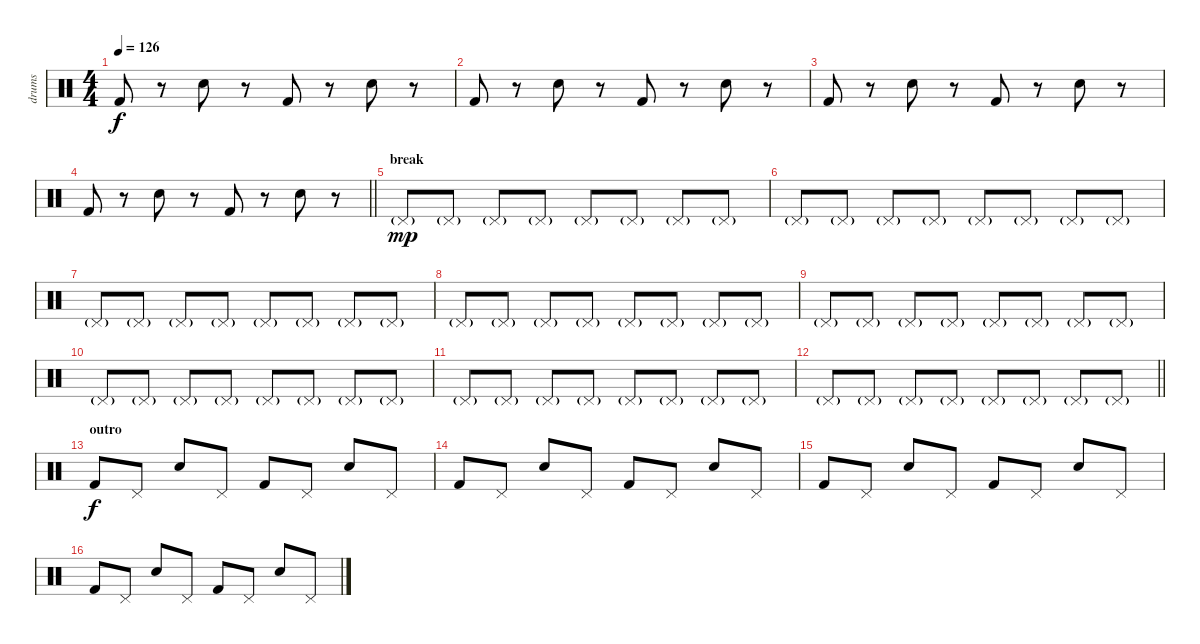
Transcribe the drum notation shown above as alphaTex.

\track ("drums" "drums") {instrument percussion}
\staff {score}
\articulation defaults
\ts (4 4)
\tempo 126
\clef neutral
\ks c "Kick (hit) 2".8{dy f}
r.8 "Hand Clap (hit)".8 r.8 "Kick (hit) 2".8 r.8 "Hand Clap (hit)".8 r.8 |
"Kick (hit) 2".8 r.8 "Hand Clap (hit)".8 r.8 "Kick (hit) 2".8 r.8 "Hand Clap (hit)".8 r.8 |
"Kick (hit) 2".8 r.8 "Hand Clap (hit)".8 r.8 "Kick (hit) 2".8 r.8 "Hand Clap (hit)".8 r.8 |
\barLineRight lightlight "Kick (hit) 2".8
r.8 "Hand Clap (hit)".8 r.8 "Kick (hit) 2".8 r.8 "Hand Clap (hit)".8 r.8 |
\section ("" "break")
"Pedal Hi-Hat (hit)"{g}.8{dy mp} "Pedal Hi-Hat (hit)"{g}.8 "Pedal Hi-Hat (hit)"{g}.8 "Pedal Hi-Hat (hit)"{g}.8 "Pedal Hi-Hat (hit)"{g}.8 "Pedal Hi-Hat (hit)"{g}.8 "Pedal Hi-Hat (hit)"{g}.8 "Pedal Hi-Hat (hit)"{g}.8 |
"Pedal Hi-Hat (hit)"{g}.8 "Pedal Hi-Hat (hit)"{g}.8 "Pedal Hi-Hat (hit)"{g}.8 "Pedal Hi-Hat (hit)"{g}.8 "Pedal Hi-Hat (hit)"{g}.8 "Pedal Hi-Hat (hit)"{g}.8 "Pedal Hi-Hat (hit)"{g}.8 "Pedal Hi-Hat (hit)"{g}.8 |
"Pedal Hi-Hat (hit)"{g}.8 "Pedal Hi-Hat (hit)"{g}.8 "Pedal Hi-Hat (hit)"{g}.8 "Pedal Hi-Hat (hit)"{g}.8 "Pedal Hi-Hat (hit)"{g}.8 "Pedal Hi-Hat (hit)"{g}.8 "Pedal Hi-Hat (hit)"{g}.8 "Pedal Hi-Hat (hit)"{g}.8 |
"Pedal Hi-Hat (hit)"{g}.8 "Pedal Hi-Hat (hit)"{g}.8 "Pedal Hi-Hat (hit)"{g}.8 "Pedal Hi-Hat (hit)"{g}.8 "Pedal Hi-Hat (hit)"{g}.8 "Pedal Hi-Hat (hit)"{g}.8 "Pedal Hi-Hat (hit)"{g}.8 "Pedal Hi-Hat (hit)"{g}.8 |
"Pedal Hi-Hat (hit)"{g}.8 "Pedal Hi-Hat (hit)"{g}.8 "Pedal Hi-Hat (hit)"{g}.8 "Pedal Hi-Hat (hit)"{g}.8 "Pedal Hi-Hat (hit)"{g}.8 "Pedal Hi-Hat (hit)"{g}.8 "Pedal Hi-Hat (hit)"{g}.8 "Pedal Hi-Hat (hit)"{g}.8 |
"Pedal Hi-Hat (hit)"{g}.8 "Pedal Hi-Hat (hit)"{g}.8 "Pedal Hi-Hat (hit)"{g}.8 "Pedal Hi-Hat (hit)"{g}.8 "Pedal Hi-Hat (hit)"{g}.8 "Pedal Hi-Hat (hit)"{g}.8 "Pedal Hi-Hat (hit)"{g}.8 "Pedal Hi-Hat (hit)"{g}.8 |
"Pedal Hi-Hat (hit)"{g}.8 "Pedal Hi-Hat (hit)"{g}.8 "Pedal Hi-Hat (hit)"{g}.8 "Pedal Hi-Hat (hit)"{g}.8 "Pedal Hi-Hat (hit)"{g}.8 "Pedal Hi-Hat (hit)"{g}.8 "Pedal Hi-Hat (hit)"{g}.8 "Pedal Hi-Hat (hit)"{g}.8 |
\barLineRight lightlight "Pedal Hi-Hat (hit)"{g}.8 "Pedal Hi-Hat (hit)"{g}.8 "Pedal Hi-Hat (hit)"{g}.8 "Pedal Hi-Hat (hit)"{g}.8 "Pedal Hi-Hat (hit)"{g}.8 "Pedal Hi-Hat (hit)"{g}.8 "Pedal Hi-Hat (hit)"{g}.8 "Pedal Hi-Hat (hit)"{g}.8
|
\section ("" "outro")
"Kick (hit) 2".8{dy f} "Pedal Hi-Hat (hit)".8 "Hand Clap (hit)".8 "Pedal Hi-Hat (hit)".8 "Kick (hit) 2".8 "Pedal Hi-Hat (hit)".8 "Hand Clap (hit)".8 "Pedal Hi-Hat (hit)".8 |
"Kick (hit) 2".8 "Pedal Hi-Hat (hit)".8 "Hand Clap (hit)".8 "Pedal Hi-Hat (hit)".8 "Kick (hit) 2".8 "Pedal Hi-Hat (hit)".8 "Hand Clap (hit)".8 "Pedal Hi-Hat (hit)".8 |
"Kick (hit) 2".8 "Pedal Hi-Hat (hit)".8 "Hand Clap (hit)".8 "Pedal Hi-Hat (hit)".8 "Kick (hit) 2".8 "Pedal Hi-Hat (hit)".8 "Hand Clap (hit)".8 "Pedal Hi-Hat (hit)".8 |
"Kick (hit) 2".8 "Pedal Hi-Hat (hit)".8 "Hand Clap (hit)".8 "Pedal Hi-Hat (hit)".8 "Kick (hit) 2".8 "Pedal Hi-Hat (hit)".8 "Hand Clap (hit)".8 "Pedal Hi-Hat (hit)".8
